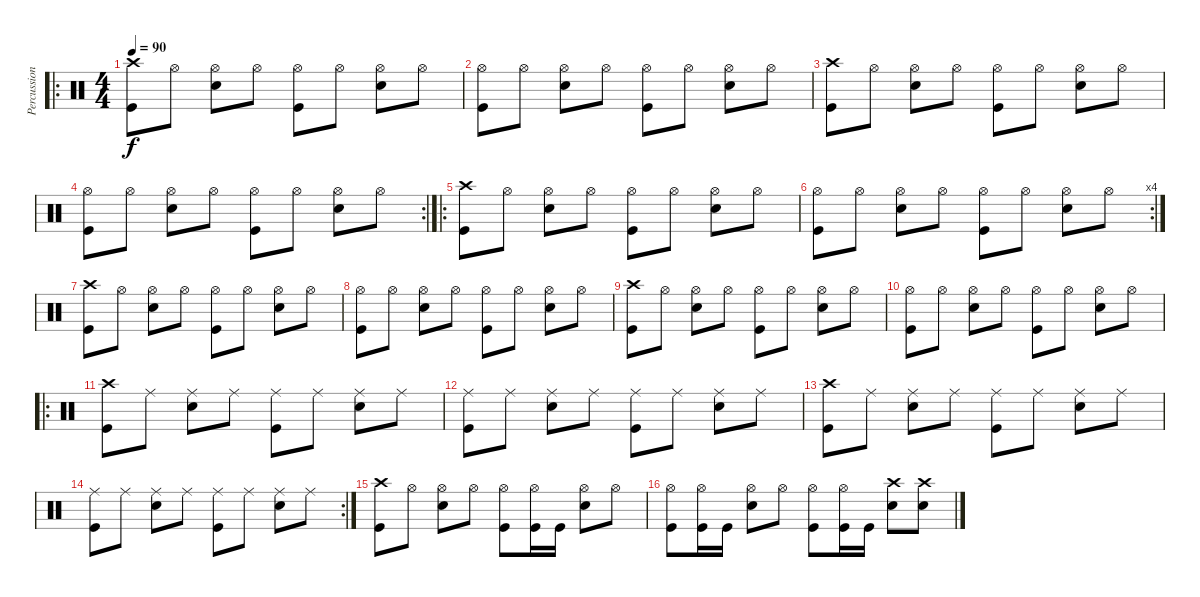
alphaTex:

\track ("Percussion" "Percussion") {instrument percussion}
\staff {score}
\articulation defaults
\ro
\ts (4 4)
\tempo 90
\clef neutral
\ks c
("Crash high (hit)" "Kick (hit)").8{dy f} "Hi-Hat (open)".8 ("Hi-Hat (open)" "Snare (hit) 2").8 "Hi-Hat (open)".8 ("Hi-Hat (open)" "Kick (hit)").8 "Hi-Hat (open)".8 ("Hi-Hat (open)" "Snare (hit) 2").8 "Hi-Hat (open)".8 |
("Hi-Hat (open)" "Kick (hit)").8 "Hi-Hat (open)".8 ("Hi-Hat (open)" "Snare (hit) 2").8 "Hi-Hat (open)".8 ("Hi-Hat (open)" "Kick (hit)").8 "Hi-Hat (open)".8 ("Hi-Hat (open)" "Snare (hit) 2").8 "Hi-Hat (open)".8 |
("Crash high (hit)" "Kick (hit)").8 "Hi-Hat (open)".8 ("Hi-Hat (open)" "Snare (hit) 2").8 "Hi-Hat (open)".8 ("Hi-Hat (open)" "Kick (hit)").8 "Hi-Hat (open)".8 ("Hi-Hat (open)" "Snare (hit) 2").8 "Hi-Hat (open)".8 |
\rc 2
("Hi-Hat (open)" "Kick (hit)").8 "Hi-Hat (open)".8 ("Hi-Hat (open)" "Snare (hit) 2").8 "Hi-Hat (open)".8 ("Hi-Hat (open)" "Kick (hit)").8 "Hi-Hat (open)".8 ("Hi-Hat (open)" "Snare (hit) 2").8 "Hi-Hat (open)".8 |
\ro
("Crash high (hit)" "Kick (hit)").8 "Hi-Hat (open)".8 ("Hi-Hat (open)" "Snare (hit) 2").8 "Hi-Hat (open)".8 ("Hi-Hat (open)" "Kick (hit)").8 "Hi-Hat (open)".8 ("Hi-Hat (open)" "Snare (hit) 2").8 "Hi-Hat (open)".8 |
\rc 4
("Hi-Hat (open)" "Kick (hit)").8 "Hi-Hat (open)".8 ("Hi-Hat (open)" "Snare (hit) 2").8 "Hi-Hat (open)".8 ("Hi-Hat (open)" "Kick (hit)").8 "Hi-Hat (open)".8 ("Hi-Hat (open)" "Snare (hit) 2").8 "Hi-Hat (open)".8 |
("Crash high (hit)" "Kick (hit)").8 "Hi-Hat (open)".8 ("Hi-Hat (open)" "Snare (hit) 2").8 "Hi-Hat (open)".8 ("Hi-Hat (open)" "Kick (hit)").8 "Hi-Hat (open)".8 ("Hi-Hat (open)" "Snare (hit) 2").8 "Hi-Hat (open)".8 |
("Hi-Hat (open)" "Kick (hit)").8 "Hi-Hat (open)".8 ("Hi-Hat (open)" "Snare (hit) 2").8 "Hi-Hat (open)".8 ("Hi-Hat (open)" "Kick (hit)").8 "Hi-Hat (open)".8 ("Hi-Hat (open)" "Snare (hit) 2").8 "Hi-Hat (open)".8 |
("Crash high (hit)" "Kick (hit)").8 "Hi-Hat (open)".8 ("Hi-Hat (open)" "Snare (hit) 2").8 "Hi-Hat (open)".8 ("Hi-Hat (open)" "Kick (hit)").8 "Hi-Hat (open)".8 ("Hi-Hat (open)" "Snare (hit) 2").8 "Hi-Hat (open)".8 |
("Hi-Hat (open)" "Kick (hit)").8 "Hi-Hat (open)".8 ("Hi-Hat (open)" "Snare (hit) 2").8 "Hi-Hat (open)".8 ("Hi-Hat (open)" "Kick (hit)").8 "Hi-Hat (open)".8 ("Hi-Hat (open)" "Snare (hit) 2").8 "Hi-Hat (open)".8 |
\ro
("Crash high (hit)" "Kick (hit)").8 "Ride (middle)".8 ("Ride (middle)" "Snare (hit) 2").8 "Ride (middle)".8 ("Ride (middle)" "Kick (hit)").8 "Ride (middle)".8 ("Ride (middle)" "Snare (hit) 2").8 "Ride (middle)".8 |
("Ride (middle)" "Kick (hit)").8 "Ride (middle)".8 ("Ride (middle)" "Snare (hit) 2").8 "Ride (middle)".8 ("Ride (middle)" "Kick (hit)").8 "Ride (middle)".8 ("Ride (middle)" "Snare (hit) 2").8 "Ride (middle)".8 |
("Crash high (hit)" "Kick (hit)").8 "Ride (middle)".8 ("Ride (middle)" "Snare (hit) 2").8 "Ride (middle)".8 ("Ride (middle)" "Kick (hit)").8 "Ride (middle)".8 ("Ride (middle)" "Snare (hit) 2").8 "Ride (middle)".8 |
\rc 2
("Ride (middle)" "Kick (hit)").8 "Ride (middle)".8 ("Ride (middle)" "Snare (hit) 2").8 "Ride (middle)".8 ("Ride (middle)" "Kick (hit)").8 "Ride (middle)".8 ("Ride (middle)" "Snare (hit) 2").8 "Ride (middle)".8 |
("Crash high (hit)" "Kick (hit)").8 "Hi-Hat (open)".8 ("Hi-Hat (open)" "Snare (hit) 2").8 "Hi-Hat (open)".8 ("Hi-Hat (open)" "Kick (hit)").8 ("Hi-Hat (open)" "Kick (hit)").16 "Kick (hit)".16 ("Hi-Hat (open)" "Snare (hit) 2").8 "Hi-Hat (open)".8 |
("Hi-Hat (open)" "Kick (hit)").8 ("Hi-Hat (open)" "Kick (hit)").16 "Kick (hit)".16 ("Hi-Hat (open)" "Snare (hit) 2").8 "Hi-Hat (open)".8 ("Hi-Hat (open)" "Kick (hit)").8 ("Hi-Hat (open)" "Kick (hit)").16 "Kick (hit)".16 ("Crash high (hit)" "Snare (hit) 2").8 ("Crash high (hit)" "Snare (hit) 2").8
